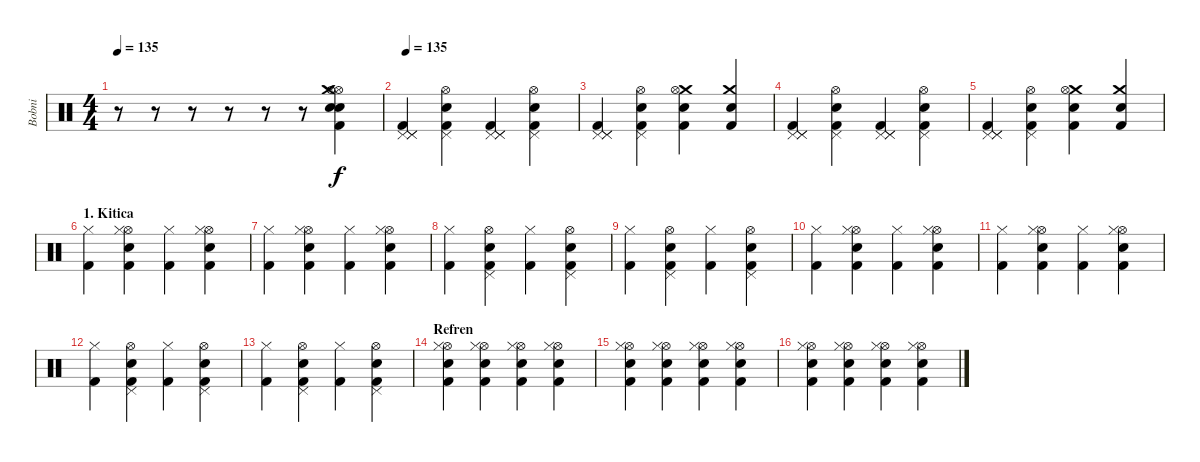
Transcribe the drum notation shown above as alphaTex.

\track ("Bobni" "Bobni") {instrument percussion}
\staff {score}
\articulation defaults
\ts (4 4)
\tempo 135
\tempo 150
\tempo 135
\clef neutral
\ks c
r.8{dy f} r.8 r.8 r.8 r.8 r.8 ("Hi-Hat (open)" "Snare (hit) 2" "Hi-Hat (open)" "Snare (hit) 2" "Crash medium (hit)" "Kick (hit) 2").4 |
\tempo 135
("Pedal Hi-Hat (hit)" "Pedal Hi-Hat (hit)" "Pedal Hi-Hat (hit)" "Kick (hit) 2").4 ("Hi-Hat (open)" "Snare (hit) 2" "Pedal Hi-Hat (hit)" "Kick (hit) 2").4 ("Pedal Hi-Hat (hit)" "Pedal Hi-Hat (hit)" "Pedal Hi-Hat (hit)" "Kick (hit) 2").4 ("Hi-Hat (open)" "Snare (hit) 2" "Pedal Hi-Hat (hit)" "Kick (hit) 2").4 |
("Pedal Hi-Hat (hit)" "Pedal Hi-Hat (hit)" "Pedal Hi-Hat (hit)" "Kick (hit) 2").4 ("Hi-Hat (open)" "Snare (hit) 2" "Pedal Hi-Hat (hit)" "Kick (hit) 2").4 ("Electric Snare (hit)" "Crash medium (hit)" "Hi-Hat (open)" "Kick (hit) 2").4 ("Crash medium (hit)" "Snare (hit) 2" "Kick (hit) 2").4 |
("Pedal Hi-Hat (hit)" "Pedal Hi-Hat (hit)" "Pedal Hi-Hat (hit)" "Kick (hit) 2").4 ("Hi-Hat (open)" "Snare (hit) 2" "Pedal Hi-Hat (hit)" "Kick (hit) 2").4 ("Pedal Hi-Hat (hit)" "Pedal Hi-Hat (hit)" "Pedal Hi-Hat (hit)" "Kick (hit) 2").4 ("Hi-Hat (open)" "Snare (hit) 2" "Pedal Hi-Hat (hit)" "Kick (hit) 2").4 |
("Pedal Hi-Hat (hit)" "Pedal Hi-Hat (hit)" "Pedal Hi-Hat (hit)" "Kick (hit) 2").4 ("Hi-Hat (open)" "Snare (hit) 2" "Pedal Hi-Hat (hit)" "Kick (hit) 2").4 ("Electric Snare (hit)" "Crash medium (hit)" "Hi-Hat (open)" "Kick (hit) 2").4 ("Crash medium (hit)" "Snare (hit) 2" "Kick (hit) 2").4 |
\section ("" "1. Kitica")
("Hi-Hat (closed)" "Kick (hit) 2").4 ("Hi-Hat (open)" "Snare (hit) 2" "Hi-Hat (closed)" "Kick (hit) 2").4 ("Hi-Hat (closed)" "Kick (hit) 2").4 ("Hi-Hat (open)" "Snare (hit) 2" "Hi-Hat (closed)" "Kick (hit) 2").4 |
("Hi-Hat (closed)" "Kick (hit) 2").4 ("Hi-Hat (open)" "Snare (hit) 2" "Hi-Hat (closed)" "Kick (hit) 2").4 ("Hi-Hat (closed)" "Kick (hit) 2").4 ("Hi-Hat (open)" "Snare (hit) 2" "Hi-Hat (closed)" "Kick (hit) 2").4 |
("Hi-Hat (closed)" "Kick (hit) 2").4 ("Hi-Hat (open)" "Snare (hit) 2" "Pedal Hi-Hat (hit)" "Kick (hit) 2").4 ("Hi-Hat (closed)" "Kick (hit) 2").4 ("Hi-Hat (open)" "Snare (hit) 2" "Pedal Hi-Hat (hit)" "Kick (hit) 2").4 |
("Hi-Hat (closed)" "Kick (hit) 2").4 ("Hi-Hat (open)" "Snare (hit) 2" "Pedal Hi-Hat (hit)" "Kick (hit) 2").4 ("Hi-Hat (closed)" "Kick (hit) 2").4 ("Hi-Hat (open)" "Snare (hit) 2" "Pedal Hi-Hat (hit)" "Kick (hit) 2").4 |
("Hi-Hat (closed)" "Kick (hit) 2").4 ("Hi-Hat (open)" "Snare (hit) 2" "Hi-Hat (closed)" "Kick (hit) 2").4 ("Hi-Hat (closed)" "Kick (hit) 2").4 ("Hi-Hat (open)" "Snare (hit) 2" "Hi-Hat (closed)" "Kick (hit) 2").4 |
("Hi-Hat (closed)" "Kick (hit) 2").4 ("Hi-Hat (open)" "Snare (hit) 2" "Hi-Hat (closed)" "Kick (hit) 2").4 ("Hi-Hat (closed)" "Kick (hit) 2").4 ("Hi-Hat (open)" "Snare (hit) 2" "Hi-Hat (closed)" "Kick (hit) 2").4 |
("Hi-Hat (closed)" "Kick (hit) 2").4 ("Hi-Hat (open)" "Snare (hit) 2" "Pedal Hi-Hat (hit)" "Kick (hit) 2").4 ("Hi-Hat (closed)" "Kick (hit) 2").4 ("Hi-Hat (open)" "Snare (hit) 2" "Pedal Hi-Hat (hit)" "Kick (hit) 2").4 |
("Hi-Hat (closed)" "Kick (hit) 2").4 ("Hi-Hat (open)" "Snare (hit) 2" "Pedal Hi-Hat (hit)" "Kick (hit) 2").4 ("Hi-Hat (closed)" "Kick (hit) 2").4 ("Hi-Hat (open)" "Snare (hit) 2" "Pedal Hi-Hat (hit)" "Kick (hit) 2").4 |
\section ("" "Refren")
("Hi-Hat (open)" "Snare (hit) 2" "Hi-Hat (closed)" "Kick (hit) 2").4 ("Hi-Hat (open)" "Snare (hit) 2" "Hi-Hat (closed)" "Kick (hit) 2").4 ("Hi-Hat (open)" "Snare (hit) 2" "Hi-Hat (closed)" "Kick (hit) 2").4 ("Hi-Hat (open)" "Snare (hit) 2" "Hi-Hat (closed)" "Kick (hit) 2").4 |
("Hi-Hat (open)" "Snare (hit) 2" "Hi-Hat (closed)" "Kick (hit) 2").4 ("Hi-Hat (open)" "Snare (hit) 2" "Hi-Hat (closed)" "Kick (hit) 2").4 ("Hi-Hat (open)" "Snare (hit) 2" "Hi-Hat (closed)" "Kick (hit) 2").4 ("Hi-Hat (open)" "Snare (hit) 2" "Hi-Hat (closed)" "Kick (hit) 2").4 |
("Hi-Hat (open)" "Snare (hit) 2" "Hi-Hat (closed)" "Kick (hit) 2").4 ("Hi-Hat (open)" "Snare (hit) 2" "Hi-Hat (closed)" "Kick (hit) 2").4 ("Hi-Hat (open)" "Snare (hit) 2" "Hi-Hat (closed)" "Kick (hit) 2").4 ("Hi-Hat (open)" "Snare (hit) 2" "Hi-Hat (closed)" "Kick (hit) 2").4
